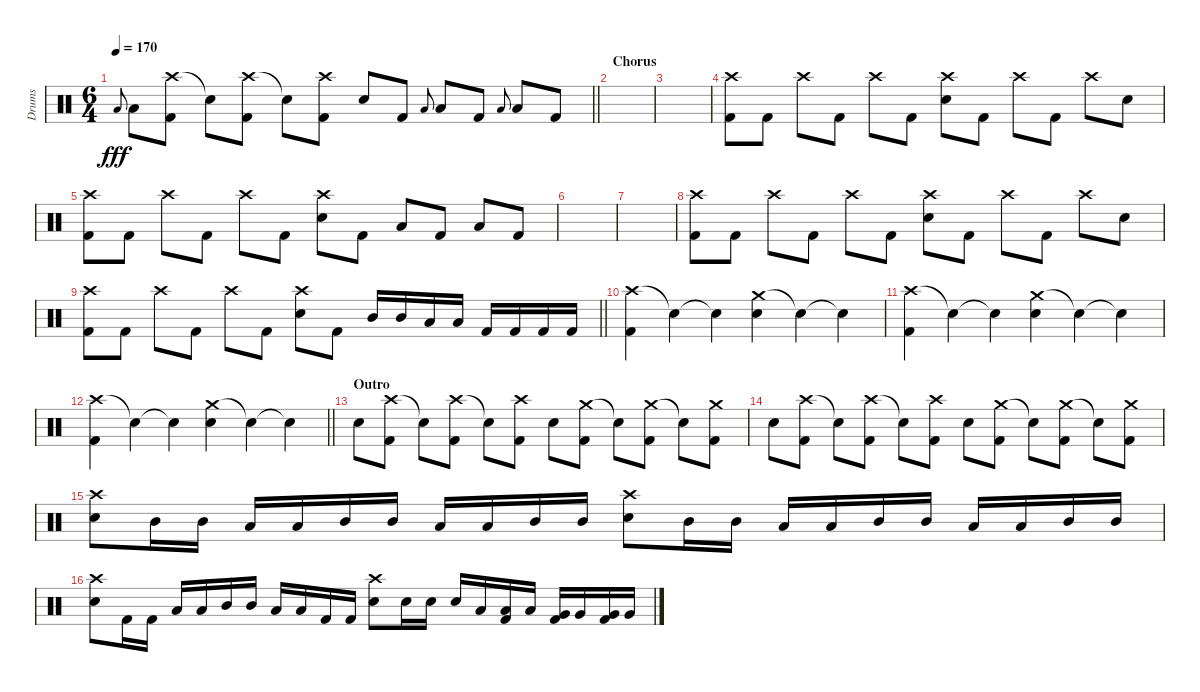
\track ("Drums" "Drums") {instrument percussion}
\staff {score}
\articulation defaults
\ts (6 4)
\tempo 170
\clef neutral
\barLineRight lightlight
\ks c "Low Tom (hit)".8{gr onbeat dy fff} "Low Tom (hit)".8
("Crash high (hit)" "Kick (hit) 2").8 "Snare (hit)"{t}.8 ("Crash high (hit)" "Kick (hit) 2").8 "Snare (hit)"{t}.8 ("Crash high (hit)" "Kick (hit) 2").8 "Snare (hit) 2".8 "Kick (hit) 2".8 "Low Tom (hit)".8{gr onbeat} "Low Tom (hit)".8 "Kick (hit) 2".8 "Low Tom (hit)".8{gr onbeat} "Low Tom (hit)".8 "Kick (hit) 2".8 |
\section ("" "Chorus")
|
|
("Crash high (hit)" "Kick (hit) 2").8 "Kick (hit) 2".8 "Crash high (hit)".8 "Kick (hit) 2".8 "Crash high (hit)".8 "Kick (hit) 2".8 ("Crash high (hit)" "Snare (hit) 2").8 "Kick (hit) 2".8 "Crash high (hit)".8 "Kick (hit) 2".8 "Crash high (hit)".8 "Snare (hit) 2".8 |
("Crash high (hit)" "Kick (hit) 2").8 "Kick (hit) 2".8 "Crash high (hit)".8 "Kick (hit) 2".8 "Crash high (hit)".8 "Kick (hit) 2".8 ("Crash high (hit)" "Snare (hit) 2").8 "Kick (hit) 2".8 "Low Tom (hit)".8 "Kick (hit) 2".8 "Low Tom (hit)".8 "Kick (hit) 2".8 |
|
|
("Crash high (hit)" "Kick (hit) 2").8 "Kick (hit) 2".8 "Crash high (hit)".8 "Kick (hit) 2".8 "Crash high (hit)".8 "Kick (hit) 2".8 ("Crash high (hit)" "Snare (hit) 2").8 "Kick (hit) 2".8 "Crash high (hit)".8 "Kick (hit) 2".8 "Crash high (hit)".8 "Snare (hit) 2".8 |
\barLineRight lightlight
("Crash high (hit)" "Kick (hit) 2").8 "Kick (hit) 2".8 "Crash high (hit)".8 "Kick (hit) 2".8 "Crash high (hit)".8 "Kick (hit) 2".8 ("Crash high (hit)" "Snare (hit) 2").8 "Kick (hit) 2".8 "Mid Tom (hit)".16 "Mid Tom (hit)".16 "Low Tom (hit)".16 "Low Tom (hit)".16 "Kick (hit) 2".16 "Kick (hit) 2".16 "Kick (hit) 2".16 "Kick (hit) 2".16 |
("Crash high (hit)" "Kick (hit) 2").4 "Snare (hit)"{t}.4 "Snare (hit)"{t}.4 ("Crash medium (hit)" "Snare (hit) 2").4 "Snare (hit)"{t}.4 "Snare (hit)"{t}.4 |
("Crash high (hit)" "Kick (hit) 2").4 "Snare (hit)"{t}.4 "Snare (hit)"{t}.4 ("Crash medium (hit)" "Snare (hit) 2").4 "Snare (hit)"{t}.4 "Snare (hit)"{t}.4 |
\barLineRight lightlight
("Crash high (hit)" "Kick (hit) 2").4 "Snare (hit)"{t}.4 "Snare (hit)"{t}.4 ("Crash medium (hit)" "Snare (hit) 2").4 "Snare (hit)"{t}.4 "Snare (hit)"{t}.4 |
\section ("" "Outro")
"Snare (hit) 2".8 ("Crash high (hit)" "Kick (hit) 2").8 "Snare (hit)"{t}.8 ("Crash high (hit)" "Kick (hit) 2").8 "Snare (hit)"{t}.8 ("Crash high (hit)" "Kick (hit) 2").8 "Snare (hit) 2".8 ("Crash medium (hit)" "Kick (hit) 2").8 "Snare (hit)"{t}.8 ("Crash medium (hit)" "Kick (hit) 2").8 "Snare (hit)"{t}.8 ("Crash medium (hit)" "Kick (hit) 2").8 |
"Snare (hit) 2".8 ("Crash high (hit)" "Kick (hit) 2").8 "Snare (hit)"{t}.8 ("Crash high (hit)" "Kick (hit) 2").8 "Snare (hit)"{t}.8 ("Crash high (hit)" "Kick (hit) 2").8 "Snare (hit) 2".8 ("Crash medium (hit)" "Kick (hit) 2").8 "Snare (hit)"{t}.8 ("Crash medium (hit)" "Kick (hit) 2").8 "Snare (hit)"{t}.8 ("Crash medium (hit)" "Kick (hit) 2").8 |
("Crash high (hit)" "Snare (hit) 2").8 "Mid Tom (hit)".16 "Mid Tom (hit)".16 "Low Tom (hit)".16 "Low Tom (hit)".16 "Mid Tom (hit)".16 "Mid Tom (hit)".16 "Low Tom (hit)".16 "Low Tom (hit)".16 "Mid Tom (hit)".16 "Mid Tom (hit)".16 ("Crash high (hit)" "Snare (hit) 2").8 "Mid Tom (hit)".16 "Mid Tom (hit)".16 "Low Tom (hit)".16 "Low Tom (hit)".16 "Mid Tom (hit)".16 "Mid Tom (hit)".16 "Low Tom (hit)".16 "Low Tom (hit)".16 "Mid Tom (hit)".16 "Mid Tom (hit)".16 |
("Crash high (hit)" "Snare (hit) 2").8 "Kick (hit) 2".16 "Kick (hit) 2".16 "Low Tom (hit)".16 "Low Tom (hit)".16 "Mid Tom (hit)".16 "Mid Tom (hit)".16 "Low Tom (hit)".16 "Low Tom (hit)".16 "Kick (hit) 2".16 "Kick (hit) 2".16 ("Crash high (hit)" "Snare (hit) 2").8 "Snare (hit) 2".16 "Snare (hit) 2".16 "Snare (hit) 2".16 "Low Tom (hit)".16 ("Low Tom (hit)" "Kick (hit) 2").16 "Low Tom (hit)".16 ("Very Low Tom (hit)" "Kick (hit) 2").16 "Very Low Tom (hit)".16 ("Very Low Tom (hit)" "Kick (hit) 2").16 "Very Low Tom (hit)".16
